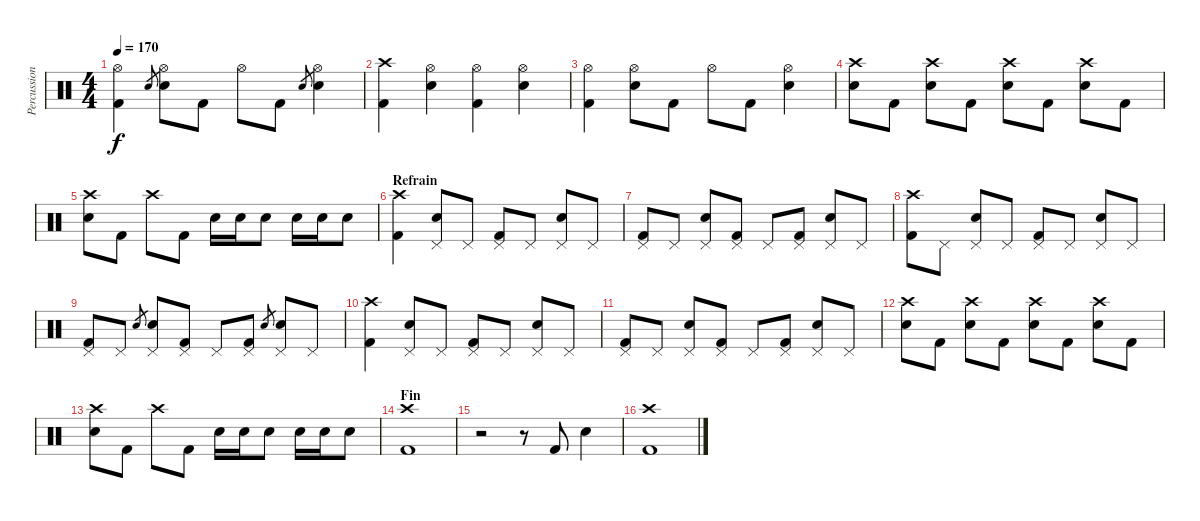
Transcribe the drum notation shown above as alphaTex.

\track ("Percussions" "Percussion") {instrument percussion}
\staff {score}
\articulation defaults
\ts (4 4)
\tempo 170
\clef neutral
\ks c
("Hi-Hat (open)" "Kick (hit) 2").4{dy f} "Electric Snare (hit)".8{gr} ("Hi-Hat (open)" "Electric Snare (hit)").8 "Kick (hit) 2".8 "Hi-Hat (open)".8 "Kick (hit) 2".8 "Electric Snare (hit)".8{gr} ("Hi-Hat (open)" "Electric Snare (hit)").4 |
("Crash high (hit)" "Kick (hit) 2").4 ("Hi-Hat (open)" "Electric Snare (hit)").4 ("Hi-Hat (open)" "Kick (hit) 2").4 ("Hi-Hat (open)" "Electric Snare (hit)").4 |
("Hi-Hat (open)" "Kick (hit) 2").4 ("Hi-Hat (open)" "Electric Snare (hit)").8 "Kick (hit) 2".8 "Hi-Hat (open)".8 "Kick (hit) 2".8 ("Hi-Hat (open)" "Electric Snare (hit)").4 |
("Crash high (hit)" "Electric Snare (hit)").8 "Kick (hit) 2".8 ("Crash high (hit)" "Electric Snare (hit)").8 "Kick (hit) 2".8 ("Crash high (hit)" "Electric Snare (hit)").8 "Kick (hit) 2".8 ("Crash high (hit)" "Electric Snare (hit)").8 "Kick (hit) 2".8 |
("Crash high (hit)" "Electric Snare (hit)").8 "Kick (hit) 2".8 "Crash high (hit)".8 "Kick (hit) 2".8 "Electric Snare (hit)".16 "Electric Snare (hit)".16 "Electric Snare (hit)".8 "Electric Snare (hit)".16 "Electric Snare (hit)".16 "Electric Snare (hit)".8 |
\section ("" "Refrain")
("Crash high (hit)" "Kick (hit) 2").4 ("Pedal Hi-Hat (hit)" "Electric Snare (hit)").8 "Pedal Hi-Hat (hit)".8 ("Pedal Hi-Hat (hit)" "Kick (hit) 2").8 "Pedal Hi-Hat (hit)".8 ("Pedal Hi-Hat (hit)" "Electric Snare (hit)").8 "Pedal Hi-Hat (hit)".8 |
("Pedal Hi-Hat (hit)" "Kick (hit) 2").8 "Pedal Hi-Hat (hit)".8 ("Pedal Hi-Hat (hit)" "Electric Snare (hit)").8 ("Pedal Hi-Hat (hit)" "Kick (hit) 2").8 "Pedal Hi-Hat (hit)".8 ("Pedal Hi-Hat (hit)" "Kick (hit) 2").8 ("Pedal Hi-Hat (hit)" "Electric Snare (hit)").8 "Pedal Hi-Hat (hit)".8 |
("Crash high (hit)" "Kick (hit) 2").8 "Pedal Hi-Hat (hit)".8 ("Pedal Hi-Hat (hit)" "Electric Snare (hit)").8 "Pedal Hi-Hat (hit)".8 ("Pedal Hi-Hat (hit)" "Kick (hit) 2").8 "Pedal Hi-Hat (hit)".8 ("Pedal Hi-Hat (hit)" "Electric Snare (hit)").8 "Pedal Hi-Hat (hit)".8 |
("Pedal Hi-Hat (hit)" "Kick (hit) 2").8 "Pedal Hi-Hat (hit)".8 "Electric Snare (hit)".8{gr} ("Pedal Hi-Hat (hit)" "Electric Snare (hit)").8 ("Pedal Hi-Hat (hit)" "Kick (hit) 2").8 "Pedal Hi-Hat (hit)".8 ("Pedal Hi-Hat (hit)" "Kick (hit) 2").8 "Electric Snare (hit)".8{gr} ("Pedal Hi-Hat (hit)" "Electric Snare (hit)").8 "Pedal Hi-Hat (hit)".8 |
("Crash high (hit)" "Kick (hit) 2").4 ("Pedal Hi-Hat (hit)" "Electric Snare (hit)").8 "Pedal Hi-Hat (hit)".8 ("Pedal Hi-Hat (hit)" "Kick (hit) 2").8 "Pedal Hi-Hat (hit)".8 ("Pedal Hi-Hat (hit)" "Electric Snare (hit)").8 "Pedal Hi-Hat (hit)".8 |
("Pedal Hi-Hat (hit)" "Kick (hit) 2").8 "Pedal Hi-Hat (hit)".8 ("Pedal Hi-Hat (hit)" "Electric Snare (hit)").8 ("Pedal Hi-Hat (hit)" "Kick (hit) 2").8 "Pedal Hi-Hat (hit)".8 ("Pedal Hi-Hat (hit)" "Kick (hit) 2").8 ("Pedal Hi-Hat (hit)" "Electric Snare (hit)").8 "Pedal Hi-Hat (hit)".8 |
("Crash high (hit)" "Electric Snare (hit)").8 "Kick (hit) 2".8 ("Crash high (hit)" "Electric Snare (hit)").8 "Kick (hit) 2".8 ("Crash high (hit)" "Electric Snare (hit)").8 "Kick (hit) 2".8 ("Crash high (hit)" "Electric Snare (hit)").8 "Kick (hit) 2".8 |
("Crash high (hit)" "Electric Snare (hit)").8 "Kick (hit) 2".8 "Crash high (hit)".8 "Kick (hit) 2".8 "Electric Snare (hit)".16 "Electric Snare (hit)".16 "Electric Snare (hit)".8 "Electric Snare (hit)".16 "Electric Snare (hit)".16 "Electric Snare (hit)".8 |
\section ("" "Fin")
("Crash high (hit)" "Kick (hit) 2").1 |
r.2 r.8 "Kick (hit) 2".8 "Electric Snare (hit)".4 |
("Crash high (hit)" "Kick (hit) 2").1
